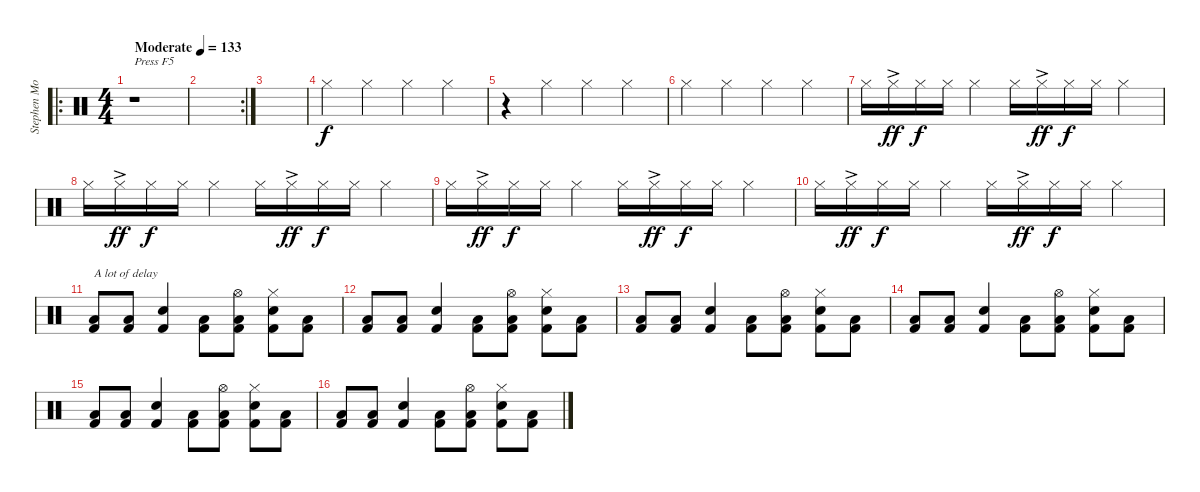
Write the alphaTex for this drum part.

\track ("Stephen Morris - Drums" "Stephen Mo") {instrument percussion}
\staff {score}
\articulation defaults
\ro
\ts (4 4)
\tempo (133 "Moderate")
\clef neutral
\ks c
r.1{txt "Press F5" dy f} |
\rc 2
|
|
"Hi-Hat (closed)".4{volume 14} "Hi-Hat (closed)".4 "Hi-Hat (closed)".4 "Hi-Hat (closed)".4 |
r.4 "Hi-Hat (closed)".4 "Hi-Hat (closed)".4 "Hi-Hat (closed)".4 |
"Hi-Hat (closed)".4 "Hi-Hat (closed)".4 "Hi-Hat (closed)".4 "Hi-Hat (closed)".4 |
"Hi-Hat (closed)".16 "Hi-Hat (closed)"{ac}.16{dy ff} "Hi-Hat (closed)".16{dy f} "Hi-Hat (closed)".16 "Hi-Hat (closed)".4 "Hi-Hat (closed)".16 "Hi-Hat (closed)"{ac}.16{dy ff} "Hi-Hat (closed)".16{dy f} "Hi-Hat (closed)".16 "Hi-Hat (closed)".4 |
"Hi-Hat (closed)".16 "Hi-Hat (closed)"{ac}.16{dy ff} "Hi-Hat (closed)".16{dy f} "Hi-Hat (closed)".16 "Hi-Hat (closed)".4 "Hi-Hat (closed)".16 "Hi-Hat (closed)"{ac}.16{dy ff} "Hi-Hat (closed)".16{dy f} "Hi-Hat (closed)".16 "Hi-Hat (closed)".4 |
"Hi-Hat (closed)".16 "Hi-Hat (closed)"{ac}.16{dy ff} "Hi-Hat (closed)".16{dy f} "Hi-Hat (closed)".16 "Hi-Hat (closed)".4 "Hi-Hat (closed)".16 "Hi-Hat (closed)"{ac}.16{dy ff} "Hi-Hat (closed)".16{dy f} "Hi-Hat (closed)".16 "Hi-Hat (closed)".4 |
"Hi-Hat (closed)".16 "Hi-Hat (closed)"{ac}.16{dy ff} "Hi-Hat (closed)".16{dy f} "Hi-Hat (closed)".16 "Hi-Hat (closed)".4 "Hi-Hat (closed)".16 "Hi-Hat (closed)"{ac}.16{dy ff} "Hi-Hat (closed)".16{dy f} "Hi-Hat (closed)".16 "Hi-Hat (closed)".4 |
("Low Tom (hit)" "Kick (hit) 2").8{txt "A lot of delay"} ("Low Tom (hit)" "Kick (hit) 2").8 ("Electric Snare (hit)" "Kick (hit) 2").4 ("Low Tom (hit)" "Kick (hit) 2").8 ("Low Tom (hit)" "Kick (hit) 2" "Hi-Hat (open)").8 ("Electric Snare (hit)" "Kick (hit) 2" "Hi-Hat (closed)").8 ("Low Tom (hit)" "Kick (hit) 2").8 |
("Low Tom (hit)" "Kick (hit) 2").8 ("Low Tom (hit)" "Kick (hit) 2").8 ("Electric Snare (hit)" "Kick (hit) 2").4 ("Low Tom (hit)" "Kick (hit) 2").8 ("Low Tom (hit)" "Kick (hit) 2" "Hi-Hat (open)").8 ("Electric Snare (hit)" "Kick (hit) 2" "Hi-Hat (closed)").8 ("Low Tom (hit)" "Kick (hit) 2").8 |
("Low Tom (hit)" "Kick (hit) 2").8 ("Low Tom (hit)" "Kick (hit) 2").8 ("Electric Snare (hit)" "Kick (hit) 2").4 ("Low Tom (hit)" "Kick (hit) 2").8 ("Low Tom (hit)" "Kick (hit) 2" "Hi-Hat (open)").8 ("Electric Snare (hit)" "Kick (hit) 2" "Hi-Hat (closed)").8 ("Low Tom (hit)" "Kick (hit) 2").8 |
("Low Tom (hit)" "Kick (hit) 2").8 ("Low Tom (hit)" "Kick (hit) 2").8 ("Electric Snare (hit)" "Kick (hit) 2").4 ("Low Tom (hit)" "Kick (hit) 2").8 ("Low Tom (hit)" "Kick (hit) 2" "Hi-Hat (open)").8 ("Electric Snare (hit)" "Kick (hit) 2" "Hi-Hat (closed)").8 ("Low Tom (hit)" "Kick (hit) 2").8 |
("Low Tom (hit)" "Kick (hit) 2").8 ("Low Tom (hit)" "Kick (hit) 2").8 ("Electric Snare (hit)" "Kick (hit) 2").4 ("Low Tom (hit)" "Kick (hit) 2").8 ("Low Tom (hit)" "Kick (hit) 2" "Hi-Hat (open)").8 ("Electric Snare (hit)" "Kick (hit) 2" "Hi-Hat (closed)").8 ("Low Tom (hit)" "Kick (hit) 2").8 |
("Low Tom (hit)" "Kick (hit) 2").8 ("Low Tom (hit)" "Kick (hit) 2").8 ("Electric Snare (hit)" "Kick (hit) 2").4 ("Low Tom (hit)" "Kick (hit) 2").8 ("Low Tom (hit)" "Kick (hit) 2" "Hi-Hat (open)").8 ("Electric Snare (hit)" "Kick (hit) 2" "Hi-Hat (closed)").8 ("Low Tom (hit)" "Kick (hit) 2").8
